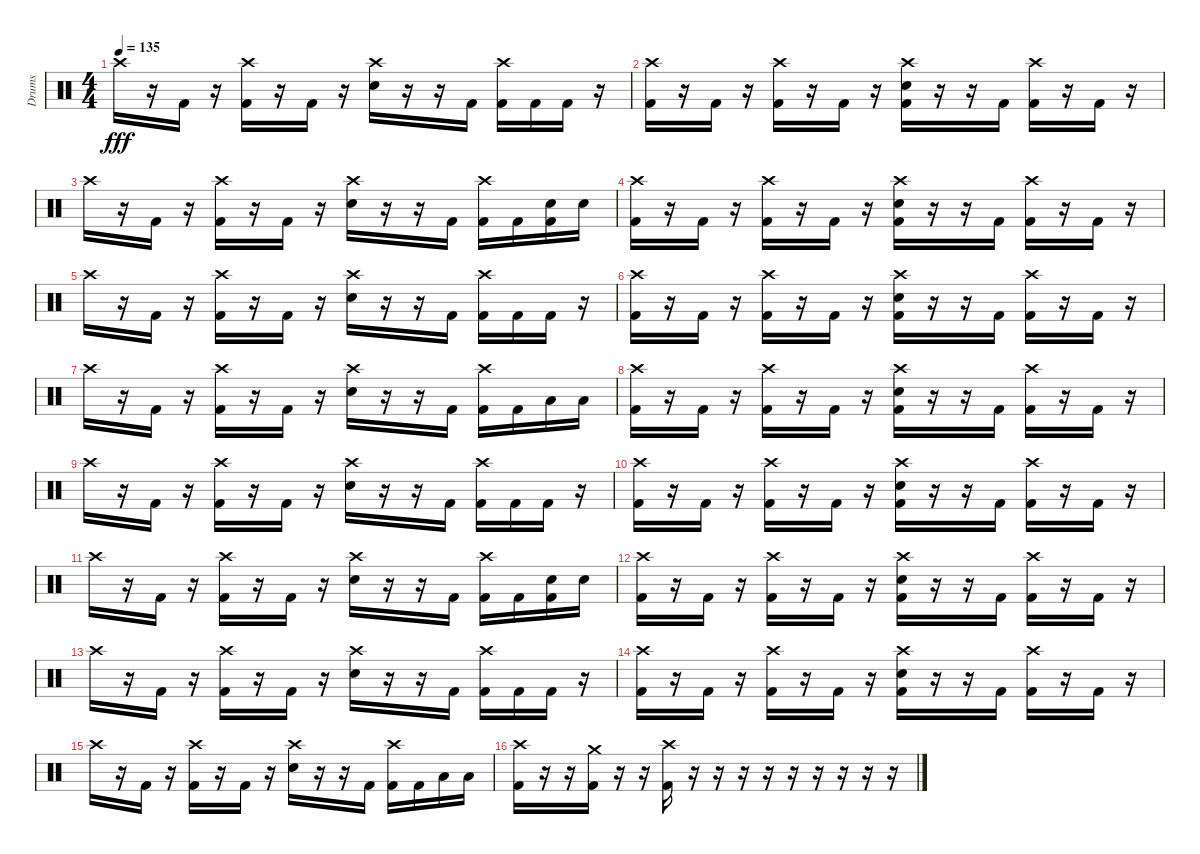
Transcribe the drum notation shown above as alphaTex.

\track ("Drums" "Drums") {instrument percussion}
\staff {score}
\articulation defaults
\ts (4 4)
\tempo 135
\clef neutral
\ks c "Crash high (hit)".16{dy fff}
r.16 "Kick (hit) 2".16 r.16 ("Crash high (hit)" "Kick (hit) 2").16 r.16 "Kick (hit) 2".16 r.16 ("Crash high (hit)" "Electric Snare (hit)").16 r.16 r.16 "Kick (hit) 2".16 ("Crash high (hit)" "Kick (hit) 2").16 "Kick (hit) 2".16 "Kick (hit) 2".16 r.16 |
("Crash high (hit)" "Kick (hit) 2").16 r.16 "Kick (hit) 2".16 r.16 ("Crash high (hit)" "Kick (hit) 2").16 r.16 "Kick (hit) 2".16 r.16 ("Crash high (hit)" "Electric Snare (hit)" "Kick (hit) 2").16 r.16 r.16 "Kick (hit) 2".16 ("Crash high (hit)" "Kick (hit) 2").16 r.16 "Kick (hit) 2".16 r.16 |
"Crash high (hit)".16 r.16 "Kick (hit) 2".16 r.16 ("Crash high (hit)" "Kick (hit) 2").16 r.16 "Kick (hit) 2".16 r.16 ("Crash high (hit)" "Electric Snare (hit)").16 r.16 r.16 "Kick (hit) 2".16 ("Crash high (hit)" "Kick (hit) 2").16 "Kick (hit) 2".16 ("Electric Snare (hit)" "Kick (hit) 2").16 "Electric Snare (hit)".16 |
("Crash high (hit)" "Kick (hit) 2").16 r.16 "Kick (hit) 2".16 r.16 ("Crash high (hit)" "Kick (hit) 2").16 r.16 "Kick (hit) 2".16 r.16 ("Crash high (hit)" "Electric Snare (hit)" "Kick (hit) 2").16 r.16 r.16 "Kick (hit) 2".16 ("Crash high (hit)" "Kick (hit) 2").16 r.16 "Kick (hit) 2".16 r.16 |
"Crash high (hit)".16 r.16 "Kick (hit) 2".16 r.16 ("Crash high (hit)" "Kick (hit) 2").16 r.16 "Kick (hit) 2".16 r.16 ("Crash high (hit)" "Electric Snare (hit)").16 r.16 r.16 "Kick (hit) 2".16 ("Crash high (hit)" "Kick (hit) 2").16 "Kick (hit) 2".16 "Kick (hit) 2".16 r.16 |
("Crash high (hit)" "Kick (hit) 2").16 r.16 "Kick (hit) 2".16 r.16 ("Crash high (hit)" "Kick (hit) 2").16 r.16 "Kick (hit) 2".16 r.16 ("Crash high (hit)" "Electric Snare (hit)" "Kick (hit) 2").16 r.16 r.16 "Kick (hit) 2".16 ("Crash high (hit)" "Kick (hit) 2").16 r.16 "Kick (hit) 2".16 r.16 |
"Crash high (hit)".16 r.16 "Kick (hit) 2".16 r.16 ("Crash high (hit)" "Kick (hit) 2").16 r.16 "Kick (hit) 2".16 r.16 ("Crash high (hit)" "Electric Snare (hit)").16 r.16 r.16 "Kick (hit) 2".16 ("Crash high (hit)" "Kick (hit) 2").16 "Kick (hit) 2".16 "Low Tom (hit)".16 "Low Tom (hit)".16 |
("Crash high (hit)" "Kick (hit) 2").16 r.16 "Kick (hit) 2".16 r.16 ("Crash high (hit)" "Kick (hit) 2").16 r.16 "Kick (hit) 2".16 r.16 ("Crash high (hit)" "Electric Snare (hit)" "Kick (hit) 2").16 r.16 r.16 "Kick (hit) 2".16 ("Crash high (hit)" "Kick (hit) 2").16 r.16 "Kick (hit) 2".16 r.16 |
"Crash high (hit)".16 r.16 "Kick (hit) 2".16 r.16 ("Crash high (hit)" "Kick (hit) 2").16 r.16 "Kick (hit) 2".16 r.16 ("Crash high (hit)" "Electric Snare (hit)").16 r.16 r.16 "Kick (hit) 2".16 ("Crash high (hit)" "Kick (hit) 2").16 "Kick (hit) 2".16 "Kick (hit) 2".16 r.16 |
("Crash high (hit)" "Kick (hit) 2").16 r.16 "Kick (hit) 2".16 r.16 ("Crash high (hit)" "Kick (hit) 2").16 r.16 "Kick (hit) 2".16 r.16 ("Crash high (hit)" "Electric Snare (hit)" "Kick (hit) 2").16 r.16 r.16 "Kick (hit) 2".16 ("Crash high (hit)" "Kick (hit) 2").16 r.16 "Kick (hit) 2".16 r.16 |
"Crash high (hit)".16 r.16 "Kick (hit) 2".16 r.16 ("Crash high (hit)" "Kick (hit) 2").16 r.16 "Kick (hit) 2".16 r.16 ("Crash high (hit)" "Electric Snare (hit)").16 r.16 r.16 "Kick (hit) 2".16 ("Crash high (hit)" "Kick (hit) 2").16 "Kick (hit) 2".16 ("Electric Snare (hit)" "Kick (hit) 2").16 "Electric Snare (hit)".16 |
("Crash high (hit)" "Kick (hit) 2").16 r.16 "Kick (hit) 2".16 r.16 ("Crash high (hit)" "Kick (hit) 2").16 r.16 "Kick (hit) 2".16 r.16 ("Crash high (hit)" "Electric Snare (hit)" "Kick (hit) 2").16 r.16 r.16 "Kick (hit) 2".16 ("Crash high (hit)" "Kick (hit) 2").16 r.16 "Kick (hit) 2".16 r.16 |
"Crash high (hit)".16 r.16 "Kick (hit) 2".16 r.16 ("Crash high (hit)" "Kick (hit) 2").16 r.16 "Kick (hit) 2".16 r.16 ("Crash high (hit)" "Electric Snare (hit)").16 r.16 r.16 "Kick (hit) 2".16 ("Crash high (hit)" "Kick (hit) 2").16 "Kick (hit) 2".16 "Kick (hit) 2".16 r.16 |
("Crash high (hit)" "Kick (hit) 2").16 r.16 "Kick (hit) 2".16 r.16 ("Crash high (hit)" "Kick (hit) 2").16 r.16 "Kick (hit) 2".16 r.16 ("Crash high (hit)" "Electric Snare (hit)" "Kick (hit) 2").16 r.16 r.16 "Kick (hit) 2".16 ("Crash high (hit)" "Kick (hit) 2").16 r.16 "Kick (hit) 2".16 r.16 |
"Crash high (hit)".16 r.16 "Kick (hit) 2".16 r.16 ("Crash high (hit)" "Kick (hit) 2").16 r.16 "Kick (hit) 2".16 r.16 ("Crash high (hit)" "Electric Snare (hit)").16 r.16 r.16 "Kick (hit) 2".16 ("Crash high (hit)" "Kick (hit) 2").16 "Kick (hit) 2".16 "Low Tom (hit)".16 "Low Tom (hit)".16 |
("Crash high (hit)" "Kick (hit) 2").16 r.16 r.16 ("Crash medium (hit)" "Kick (hit) 2").16 r.16 r.16 ("Crash high (hit)" "Kick (hit) 2").16 r.16 r.16 r.16 r.16 r.16 r.16 r.16 r.16 r.16
